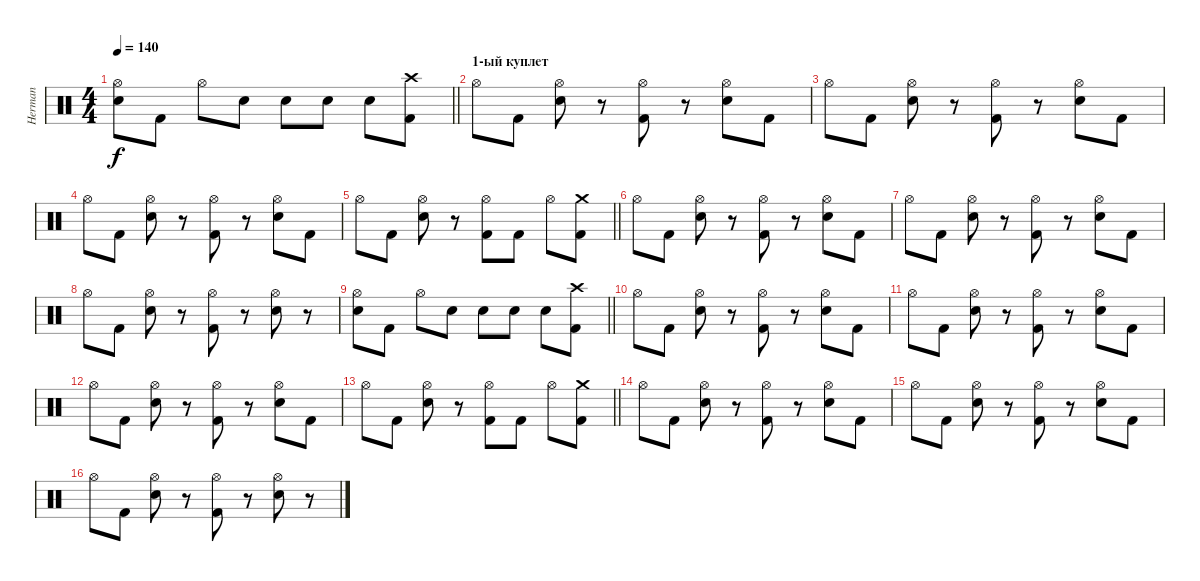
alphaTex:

\track ("Herman" "Herman") {instrument percussion}
\staff {score}
\articulation defaults
\ts (4 4)
\tempo 140
\clef neutral
\barLineRight lightlight
\ks c
("Hi-Hat (open)" "Electric Snare (hit)").8{dy f} "Kick (hit) 2".8 "Hi-Hat (open)".8 "Electric Snare (hit)".8 "Electric Snare (hit)".8 "Electric Snare (hit)".8 "Electric Snare (hit)".8 ("Crash high (hit)" "Kick (hit) 2").8 |
\section ("" "1-ый куплет")
"Hi-Hat (open)".8 "Kick (hit) 2".8 ("Hi-Hat (open)" "Electric Snare (hit)").8 r.8 ("Hi-Hat (open)" "Kick (hit) 2").8 r.8 ("Hi-Hat (open)" "Electric Snare (hit)").8 "Kick (hit) 2".8 |
"Hi-Hat (open)".8 "Kick (hit) 2".8 ("Hi-Hat (open)" "Electric Snare (hit)").8 r.8 ("Hi-Hat (open)" "Kick (hit) 2").8 r.8 ("Hi-Hat (open)" "Electric Snare (hit)").8 "Kick (hit) 2".8 |
"Hi-Hat (open)".8 "Kick (hit) 2".8 ("Hi-Hat (open)" "Electric Snare (hit)").8 r.8 ("Hi-Hat (open)" "Kick (hit) 2").8 r.8 ("Hi-Hat (open)" "Electric Snare (hit)").8 "Kick (hit) 2".8 |
\barLineRight lightlight "Hi-Hat (open)".8 "Kick (hit) 2".8
("Hi-Hat (open)" "Electric Snare (hit)").8 r.8 ("Hi-Hat (open)" "Kick (hit) 2").8 "Kick (hit) 2".8 "Hi-Hat (open)".8 ("Crash medium (hit)" "Kick (hit) 2").8 |
"Hi-Hat (open)".8 "Kick (hit) 2".8 ("Hi-Hat (open)" "Electric Snare (hit)").8 r.8 ("Hi-Hat (open)" "Kick (hit) 2").8 r.8 ("Hi-Hat (open)" "Electric Snare (hit)").8 "Kick (hit) 2".8 |
"Hi-Hat (open)".8 "Kick (hit) 2".8 ("Hi-Hat (open)" "Electric Snare (hit)").8 r.8 ("Hi-Hat (open)" "Kick (hit) 2").8 r.8 ("Hi-Hat (open)" "Electric Snare (hit)").8 "Kick (hit) 2".8 |
"Hi-Hat (open)".8 "Kick (hit) 2".8 ("Hi-Hat (open)" "Electric Snare (hit)").8 r.8 ("Hi-Hat (open)" "Kick (hit) 2").8 r.8 ("Hi-Hat (open)" "Electric Snare (hit)").8 r.8 |
\barLineRight lightlight
("Hi-Hat (open)" "Electric Snare (hit)").8 "Kick (hit) 2".8 "Hi-Hat (open)".8 "Electric Snare (hit)".8 "Electric Snare (hit)".8 "Electric Snare (hit)".8 "Electric Snare (hit)".8 ("Crash high (hit)" "Kick (hit) 2").8 |
"Hi-Hat (open)".8 "Kick (hit) 2".8 ("Hi-Hat (open)" "Electric Snare (hit)").8 r.8 ("Hi-Hat (open)" "Kick (hit) 2").8 r.8 ("Hi-Hat (open)" "Electric Snare (hit)").8 "Kick (hit) 2".8 |
"Hi-Hat (open)".8 "Kick (hit) 2".8 ("Hi-Hat (open)" "Electric Snare (hit)").8 r.8 ("Hi-Hat (open)" "Kick (hit) 2").8 r.8 ("Hi-Hat (open)" "Electric Snare (hit)").8 "Kick (hit) 2".8 |
"Hi-Hat (open)".8 "Kick (hit) 2".8 ("Hi-Hat (open)" "Electric Snare (hit)").8 r.8 ("Hi-Hat (open)" "Kick (hit) 2").8 r.8 ("Hi-Hat (open)" "Electric Snare (hit)").8 "Kick (hit) 2".8 |
\barLineRight lightlight "Hi-Hat (open)".8 "Kick (hit) 2".8
("Hi-Hat (open)" "Electric Snare (hit)").8 r.8 ("Hi-Hat (open)" "Kick (hit) 2").8 "Kick (hit) 2".8 "Hi-Hat (open)".8 ("Crash medium (hit)" "Kick (hit) 2").8 |
"Hi-Hat (open)".8 "Kick (hit) 2".8 ("Hi-Hat (open)" "Electric Snare (hit)").8 r.8 ("Hi-Hat (open)" "Kick (hit) 2").8 r.8 ("Hi-Hat (open)" "Electric Snare (hit)").8 "Kick (hit) 2".8 |
"Hi-Hat (open)".8 "Kick (hit) 2".8 ("Hi-Hat (open)" "Electric Snare (hit)").8 r.8 ("Hi-Hat (open)" "Kick (hit) 2").8 r.8 ("Hi-Hat (open)" "Electric Snare (hit)").8 "Kick (hit) 2".8 |
"Hi-Hat (open)".8 "Kick (hit) 2".8 ("Hi-Hat (open)" "Electric Snare (hit)").8 r.8 ("Hi-Hat (open)" "Kick (hit) 2").8 r.8 ("Hi-Hat (open)" "Electric Snare (hit)").8 r.8
